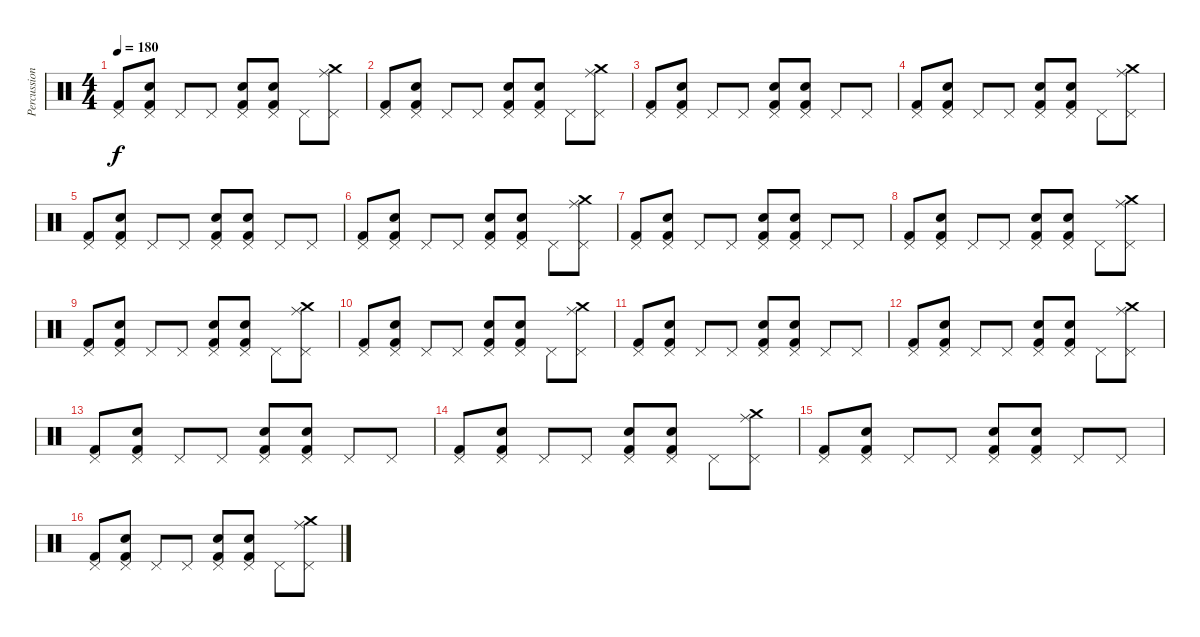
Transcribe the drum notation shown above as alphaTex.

\track ("Percussion" "Percussion") {instrument percussion}
\staff {score}
\articulation defaults
\ts (4 4)
\tempo 180
\clef neutral
\ks c
("Pedal Hi-Hat (hit)" "Kick (hit) 2").8{dy f} ("Pedal Hi-Hat (hit)" "Snare (hit) 2" "Kick (hit) 2").8 "Pedal Hi-Hat (hit)".8 "Pedal Hi-Hat (hit)".8 ("Pedal Hi-Hat (hit)" "Snare (hit) 2" "Kick (hit) 2").8 ("Pedal Hi-Hat (hit)" "Snare (hit) 2" "Kick (hit) 2").8 "Pedal Hi-Hat (hit)".8 ("Pedal Hi-Hat (hit)" "Ride (middle)" "Crash medium (hit)").8 |
("Pedal Hi-Hat (hit)" "Kick (hit) 2").8 ("Pedal Hi-Hat (hit)" "Snare (hit) 2" "Kick (hit) 2").8 "Pedal Hi-Hat (hit)".8 "Pedal Hi-Hat (hit)".8 ("Pedal Hi-Hat (hit)" "Snare (hit) 2" "Kick (hit) 2").8 ("Pedal Hi-Hat (hit)" "Snare (hit) 2" "Kick (hit) 2").8 "Pedal Hi-Hat (hit)".8 ("Pedal Hi-Hat (hit)" "Ride (middle)" "Crash medium (hit)").8 |
("Pedal Hi-Hat (hit)" "Kick (hit) 2").8 ("Pedal Hi-Hat (hit)" "Snare (hit) 2" "Kick (hit) 2").8 "Pedal Hi-Hat (hit)".8 "Pedal Hi-Hat (hit)".8 ("Pedal Hi-Hat (hit)" "Snare (hit) 2" "Kick (hit) 2").8 ("Pedal Hi-Hat (hit)" "Snare (hit) 2" "Kick (hit) 2").8 "Pedal Hi-Hat (hit)".8 "Pedal Hi-Hat (hit)".8 |
("Pedal Hi-Hat (hit)" "Kick (hit) 2").8 ("Pedal Hi-Hat (hit)" "Snare (hit) 2" "Kick (hit) 2").8 "Pedal Hi-Hat (hit)".8 "Pedal Hi-Hat (hit)".8 ("Pedal Hi-Hat (hit)" "Snare (hit) 2" "Kick (hit) 2").8 ("Pedal Hi-Hat (hit)" "Snare (hit) 2" "Kick (hit) 2").8 "Pedal Hi-Hat (hit)".8 ("Pedal Hi-Hat (hit)" "Ride (middle)" "Crash medium (hit)").8 |
("Pedal Hi-Hat (hit)" "Kick (hit) 2").8 ("Pedal Hi-Hat (hit)" "Snare (hit) 2" "Kick (hit) 2").8 "Pedal Hi-Hat (hit)".8 "Pedal Hi-Hat (hit)".8 ("Pedal Hi-Hat (hit)" "Snare (hit) 2" "Kick (hit) 2").8 ("Pedal Hi-Hat (hit)" "Snare (hit) 2" "Kick (hit) 2").8 "Pedal Hi-Hat (hit)".8 "Pedal Hi-Hat (hit)".8 |
("Pedal Hi-Hat (hit)" "Kick (hit) 2").8 ("Pedal Hi-Hat (hit)" "Snare (hit) 2" "Kick (hit) 2").8 "Pedal Hi-Hat (hit)".8 "Pedal Hi-Hat (hit)".8 ("Pedal Hi-Hat (hit)" "Snare (hit) 2" "Kick (hit) 2").8 ("Pedal Hi-Hat (hit)" "Snare (hit) 2" "Kick (hit) 2").8 "Pedal Hi-Hat (hit)".8 ("Pedal Hi-Hat (hit)" "Ride (middle)" "Crash medium (hit)").8 |
("Pedal Hi-Hat (hit)" "Kick (hit) 2").8 ("Pedal Hi-Hat (hit)" "Snare (hit) 2" "Kick (hit) 2").8 "Pedal Hi-Hat (hit)".8 "Pedal Hi-Hat (hit)".8 ("Pedal Hi-Hat (hit)" "Snare (hit) 2" "Kick (hit) 2").8 ("Pedal Hi-Hat (hit)" "Snare (hit) 2" "Kick (hit) 2").8 "Pedal Hi-Hat (hit)".8 "Pedal Hi-Hat (hit)".8 |
("Pedal Hi-Hat (hit)" "Kick (hit) 2").8 ("Pedal Hi-Hat (hit)" "Snare (hit) 2" "Kick (hit) 2").8 "Pedal Hi-Hat (hit)".8 "Pedal Hi-Hat (hit)".8 ("Pedal Hi-Hat (hit)" "Snare (hit) 2" "Kick (hit) 2").8 ("Pedal Hi-Hat (hit)" "Snare (hit) 2" "Kick (hit) 2").8 "Pedal Hi-Hat (hit)".8 ("Pedal Hi-Hat (hit)" "Ride (middle)" "Crash medium (hit)").8 |
("Pedal Hi-Hat (hit)" "Kick (hit) 2").8 ("Pedal Hi-Hat (hit)" "Snare (hit) 2" "Kick (hit) 2").8 "Pedal Hi-Hat (hit)".8 "Pedal Hi-Hat (hit)".8 ("Pedal Hi-Hat (hit)" "Snare (hit) 2" "Kick (hit) 2").8 ("Pedal Hi-Hat (hit)" "Snare (hit) 2" "Kick (hit) 2").8 "Pedal Hi-Hat (hit)".8 ("Pedal Hi-Hat (hit)" "Ride (middle)" "Crash medium (hit)").8 |
("Pedal Hi-Hat (hit)" "Kick (hit) 2").8 ("Pedal Hi-Hat (hit)" "Snare (hit) 2" "Kick (hit) 2").8 "Pedal Hi-Hat (hit)".8 "Pedal Hi-Hat (hit)".8 ("Pedal Hi-Hat (hit)" "Snare (hit) 2" "Kick (hit) 2").8 ("Pedal Hi-Hat (hit)" "Snare (hit) 2" "Kick (hit) 2").8 "Pedal Hi-Hat (hit)".8 ("Pedal Hi-Hat (hit)" "Ride (middle)" "Crash medium (hit)").8 |
("Pedal Hi-Hat (hit)" "Kick (hit) 2").8 ("Pedal Hi-Hat (hit)" "Snare (hit) 2" "Kick (hit) 2").8 "Pedal Hi-Hat (hit)".8 "Pedal Hi-Hat (hit)".8 ("Pedal Hi-Hat (hit)" "Snare (hit) 2" "Kick (hit) 2").8 ("Pedal Hi-Hat (hit)" "Snare (hit) 2" "Kick (hit) 2").8 "Pedal Hi-Hat (hit)".8 "Pedal Hi-Hat (hit)".8 |
("Pedal Hi-Hat (hit)" "Kick (hit) 2").8 ("Pedal Hi-Hat (hit)" "Snare (hit) 2" "Kick (hit) 2").8 "Pedal Hi-Hat (hit)".8 "Pedal Hi-Hat (hit)".8 ("Pedal Hi-Hat (hit)" "Snare (hit) 2" "Kick (hit) 2").8 ("Pedal Hi-Hat (hit)" "Snare (hit) 2" "Kick (hit) 2").8 "Pedal Hi-Hat (hit)".8 ("Pedal Hi-Hat (hit)" "Ride (middle)" "Crash medium (hit)").8 |
("Pedal Hi-Hat (hit)" "Kick (hit) 2").8 ("Pedal Hi-Hat (hit)" "Snare (hit) 2" "Kick (hit) 2").8 "Pedal Hi-Hat (hit)".8 "Pedal Hi-Hat (hit)".8 ("Pedal Hi-Hat (hit)" "Snare (hit) 2" "Kick (hit) 2").8 ("Pedal Hi-Hat (hit)" "Snare (hit) 2" "Kick (hit) 2").8 "Pedal Hi-Hat (hit)".8 "Pedal Hi-Hat (hit)".8 |
("Pedal Hi-Hat (hit)" "Kick (hit) 2").8 ("Pedal Hi-Hat (hit)" "Snare (hit) 2" "Kick (hit) 2").8 "Pedal Hi-Hat (hit)".8 "Pedal Hi-Hat (hit)".8 ("Pedal Hi-Hat (hit)" "Snare (hit) 2" "Kick (hit) 2").8 ("Pedal Hi-Hat (hit)" "Snare (hit) 2" "Kick (hit) 2").8 "Pedal Hi-Hat (hit)".8 ("Pedal Hi-Hat (hit)" "Ride (middle)" "Crash medium (hit)").8 |
("Pedal Hi-Hat (hit)" "Kick (hit) 2").8 ("Pedal Hi-Hat (hit)" "Snare (hit) 2" "Kick (hit) 2").8 "Pedal Hi-Hat (hit)".8 "Pedal Hi-Hat (hit)".8 ("Pedal Hi-Hat (hit)" "Snare (hit) 2" "Kick (hit) 2").8 ("Pedal Hi-Hat (hit)" "Snare (hit) 2" "Kick (hit) 2").8 "Pedal Hi-Hat (hit)".8 "Pedal Hi-Hat (hit)".8 |
("Pedal Hi-Hat (hit)" "Kick (hit) 2").8 ("Pedal Hi-Hat (hit)" "Snare (hit) 2" "Kick (hit) 2").8 "Pedal Hi-Hat (hit)".8 "Pedal Hi-Hat (hit)".8 ("Pedal Hi-Hat (hit)" "Snare (hit) 2" "Kick (hit) 2").8 ("Pedal Hi-Hat (hit)" "Snare (hit) 2" "Kick (hit) 2").8 "Pedal Hi-Hat (hit)".8 ("Pedal Hi-Hat (hit)" "Ride (middle)" "Crash medium (hit)").8
